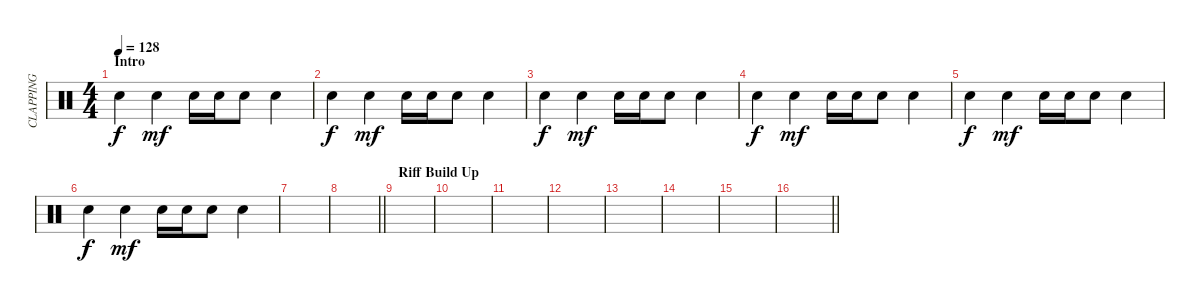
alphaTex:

\track ("CLAPPING" "CLAPPING") {instrument percussion}
\staff {score}
\articulation defaults
\ts (4 4)
\section ("" "Intro")
\tempo 128
\clef neutral
\ks c "Hand Clap (hit)".4{dy f} "Hand Clap (hit)".4{dy mf} "Hand Clap (hit)".16 "Hand Clap (hit)".16 "Hand Clap (hit)".8 "Hand Clap (hit)".4
|
"Hand Clap (hit)".4{dy f} "Hand Clap (hit)".4{dy mf} "Hand Clap (hit)".16 "Hand Clap (hit)".16 "Hand Clap (hit)".8 "Hand Clap (hit)".4 |
"Hand Clap (hit)".4{dy f} "Hand Clap (hit)".4{dy mf} "Hand Clap (hit)".16 "Hand Clap (hit)".16 "Hand Clap (hit)".8 "Hand Clap (hit)".4 |
"Hand Clap (hit)".4{dy f} "Hand Clap (hit)".4{dy mf} "Hand Clap (hit)".16 "Hand Clap (hit)".16 "Hand Clap (hit)".8 "Hand Clap (hit)".4 |
"Hand Clap (hit)".4{dy f} "Hand Clap (hit)".4{dy mf} "Hand Clap (hit)".16 "Hand Clap (hit)".16 "Hand Clap (hit)".8 "Hand Clap (hit)".4 |
"Hand Clap (hit)".4{dy f} "Hand Clap (hit)".4{dy mf} "Hand Clap (hit)".16 "Hand Clap (hit)".16 "Hand Clap (hit)".8 "Hand Clap (hit)".4 |
|
\barLineRight lightlight
|
\section ("" "Riff Build Up")
|
|
|
|
|
|
|
\barLineRight lightlight
